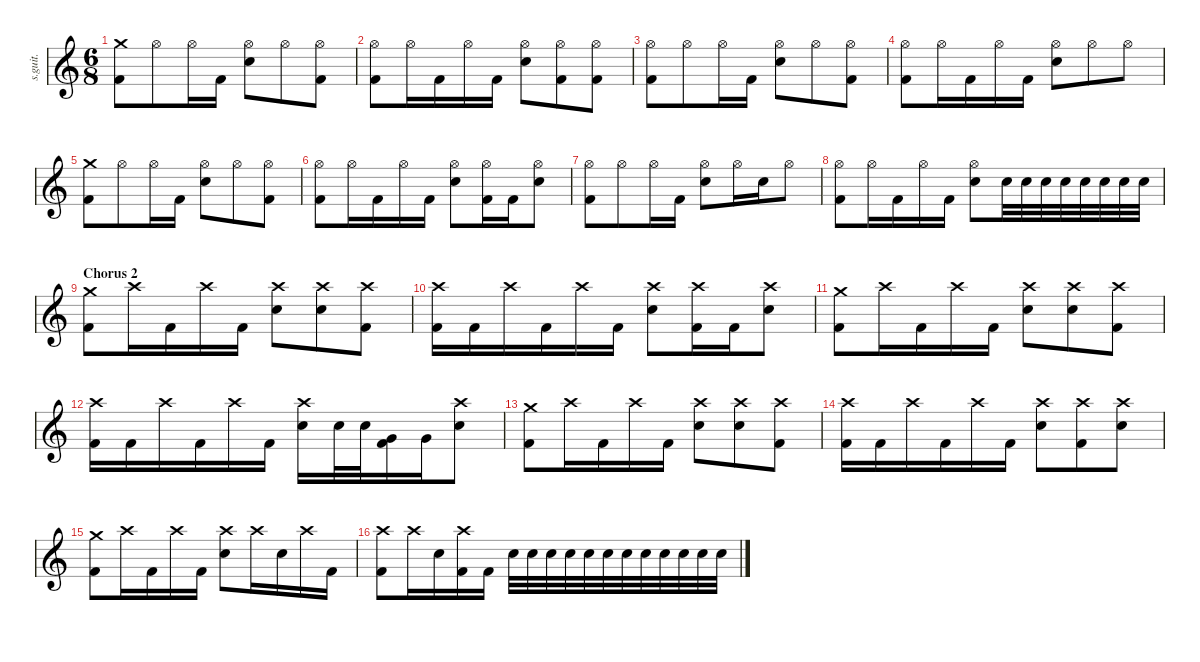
\defaultSystemsLayout 4
\hideDynamics
\bracketExtendMode nobrackets
\track ("Shannon (Drums)" "s.guit.") {instrument percussion}
\staff {score}
\articulation defaults
\ts (6 8)
\tempo (94 hide)
\clef g2
\ks c
("Crash medium (hit)" "Kick (hit) 2").8{lyrics (0 "") lyrics (1 "") lyrics (2 "") lyrics (3 "") lyrics (4 "") dy f} "Hi-Hat (open)".8{lyrics (0 "") lyrics (1 "") lyrics (2 "") lyrics (3 "") lyrics (4 "")} "Hi-Hat (open)".16{lyrics (0 "") lyrics (1 "") lyrics (2 "") lyrics (3 "") lyrics (4 "")} "Kick (hit) 2".16{lyrics (0 "") lyrics (1 "") lyrics (2 "") lyrics (3 "") lyrics (4 "")} ("Hi-Hat (open)" "Electric Snare (hit)").8{lyrics (0 "") lyrics (1 "") lyrics (2 "") lyrics (3 "") lyrics (4 "")} "Hi-Hat (open)".8{lyrics (0 "") lyrics (1 "") lyrics (2 "") lyrics (3 "") lyrics (4 "")} ("Hi-Hat (open)" "Kick (hit) 2").8{lyrics (0 "") lyrics (1 "") lyrics (2 "") lyrics (3 "") lyrics (4 "")} |
("Hi-Hat (open)" "Kick (hit) 2").8{lyrics (0 "") lyrics (1 "") lyrics (2 "") lyrics (3 "") lyrics (4 "")} "Hi-Hat (open)".16{lyrics (0 "") lyrics (1 "") lyrics (2 "") lyrics (3 "") lyrics (4 "")} "Kick (hit) 2".16{lyrics (0 "") lyrics (1 "") lyrics (2 "") lyrics (3 "") lyrics (4 "")} "Hi-Hat (open)".16{lyrics (0 "") lyrics (1 "") lyrics (2 "") lyrics (3 "") lyrics (4 "")} "Kick (hit) 2".16{lyrics (0 "") lyrics (1 "") lyrics (2 "") lyrics (3 "") lyrics (4 "")} ("Hi-Hat (open)" "Electric Snare (hit)").8{lyrics (0 "") lyrics (1 "") lyrics (2 "") lyrics (3 "") lyrics (4 "")} ("Hi-Hat (open)" "Kick (hit) 2").8{lyrics (0 "") lyrics (1 "") lyrics (2 "") lyrics (3 "") lyrics (4 "")} ("Hi-Hat (open)" "Kick (hit) 2").8{lyrics (0 "") lyrics (1 "") lyrics (2 "") lyrics (3 "") lyrics (4 "")} |
("Hi-Hat (open)" "Kick (hit) 2").8{lyrics (0 "") lyrics (1 "") lyrics (2 "") lyrics (3 "") lyrics (4 "")} "Hi-Hat (open)".8{lyrics (0 "") lyrics (1 "") lyrics (2 "") lyrics (3 "") lyrics (4 "")} "Hi-Hat (open)".16{lyrics (0 "") lyrics (1 "") lyrics (2 "") lyrics (3 "") lyrics (4 "")} "Kick (hit) 2".16{lyrics (0 "") lyrics (1 "") lyrics (2 "") lyrics (3 "") lyrics (4 "")} ("Hi-Hat (open)" "Electric Snare (hit)").8{lyrics (0 "") lyrics (1 "") lyrics (2 "") lyrics (3 "") lyrics (4 "")} "Hi-Hat (open)".8{lyrics (0 "") lyrics (1 "") lyrics (2 "") lyrics (3 "") lyrics (4 "")} ("Hi-Hat (open)" "Kick (hit) 2").8{lyrics (0 "") lyrics (1 "") lyrics (2 "") lyrics (3 "") lyrics (4 "")} |
("Hi-Hat (open)" "Kick (hit) 2").8{lyrics (0 "") lyrics (1 "") lyrics (2 "") lyrics (3 "") lyrics (4 "")} "Hi-Hat (open)".16{lyrics (0 "") lyrics (1 "") lyrics (2 "") lyrics (3 "") lyrics (4 "")} "Kick (hit) 2".16{lyrics (0 "") lyrics (1 "") lyrics (2 "") lyrics (3 "") lyrics (4 "")} "Hi-Hat (open)".16{lyrics (0 "") lyrics (1 "") lyrics (2 "") lyrics (3 "") lyrics (4 "")} "Kick (hit) 2".16{lyrics (0 "") lyrics (1 "") lyrics (2 "") lyrics (3 "") lyrics (4 "")} ("Hi-Hat (open)" "Electric Snare (hit)").8{lyrics (0 "") lyrics (1 "") lyrics (2 "") lyrics (3 "") lyrics (4 "")} "Hi-Hat (open)".8{lyrics (0 "") lyrics (1 "") lyrics (2 "") lyrics (3 "") lyrics (4 "")} "Hi-Hat (open)".8{lyrics (0 "") lyrics (1 "") lyrics (2 "") lyrics (3 "") lyrics (4 "")} |
("Crash medium (hit)" "Kick (hit) 2").8{lyrics (0 "") lyrics (1 "") lyrics (2 "") lyrics (3 "") lyrics (4 "")} "Hi-Hat (open)".8{lyrics (0 "") lyrics (1 "") lyrics (2 "") lyrics (3 "") lyrics (4 "")} "Hi-Hat (open)".16{lyrics (0 "") lyrics (1 "") lyrics (2 "") lyrics (3 "") lyrics (4 "")} "Kick (hit) 2".16{lyrics (0 "") lyrics (1 "") lyrics (2 "") lyrics (3 "") lyrics (4 "")} ("Hi-Hat (open)" "Electric Snare (hit)").8{lyrics (0 "") lyrics (1 "") lyrics (2 "") lyrics (3 "") lyrics (4 "")} "Hi-Hat (open)".8{lyrics (0 "") lyrics (1 "") lyrics (2 "") lyrics (3 "") lyrics (4 "")} ("Hi-Hat (open)" "Kick (hit) 2").8{lyrics (0 "") lyrics (1 "") lyrics (2 "") lyrics (3 "") lyrics (4 "")} |
("Hi-Hat (open)" "Kick (hit) 2").8{lyrics (0 "") lyrics (1 "") lyrics (2 "") lyrics (3 "") lyrics (4 "")} "Hi-Hat (open)".16{lyrics (0 "") lyrics (1 "") lyrics (2 "") lyrics (3 "") lyrics (4 "")} "Kick (hit) 2".16{lyrics (0 "") lyrics (1 "") lyrics (2 "") lyrics (3 "") lyrics (4 "")} "Hi-Hat (open)".16{lyrics (0 "") lyrics (1 "") lyrics (2 "") lyrics (3 "") lyrics (4 "")} "Kick (hit) 2".16{lyrics (0 "") lyrics (1 "") lyrics (2 "") lyrics (3 "") lyrics (4 "")} ("Hi-Hat (open)" "Electric Snare (hit)").8{lyrics (0 "") lyrics (1 "") lyrics (2 "") lyrics (3 "") lyrics (4 "")} ("Hi-Hat (open)" "Kick (hit) 2").16{lyrics (0 "") lyrics (1 "") lyrics (2 "") lyrics (3 "") lyrics (4 "")} "Kick (hit) 2".16{lyrics (0 "") lyrics (1 "") lyrics (2 "") lyrics (3 "") lyrics (4 "")} ("Hi-Hat (open)" "Electric Snare (hit)").8{lyrics (0 "") lyrics (1 "") lyrics (2 "") lyrics (3 "") lyrics (4 "")} |
("Hi-Hat (open)" "Kick (hit) 2").8{lyrics (0 "") lyrics (1 "") lyrics (2 "") lyrics (3 "") lyrics (4 "")} "Hi-Hat (open)".8{lyrics (0 "") lyrics (1 "") lyrics (2 "") lyrics (3 "") lyrics (4 "")} "Hi-Hat (open)".16{lyrics (0 "") lyrics (1 "") lyrics (2 "") lyrics (3 "") lyrics (4 "")} "Kick (hit) 2".16{lyrics (0 "") lyrics (1 "") lyrics (2 "") lyrics (3 "") lyrics (4 "")} ("Hi-Hat (open)" "Electric Snare (hit)").8{lyrics (0 "") lyrics (1 "") lyrics (2 "") lyrics (3 "") lyrics (4 "")} "Hi-Hat (open)".16{lyrics (0 "") lyrics (1 "") lyrics (2 "") lyrics (3 "") lyrics (4 "")} "Electric Snare (hit)".16{lyrics (0 "") lyrics (1 "") lyrics (2 "") lyrics (3 "") lyrics (4 "")} "Hi-Hat (open)".8{lyrics (0 "") lyrics (1 "") lyrics (2 "") lyrics (3 "") lyrics (4 "")} |
("Hi-Hat (open)" "Kick (hit) 2").8{lyrics (0 "") lyrics (1 "") lyrics (2 "") lyrics (3 "") lyrics (4 "")} "Hi-Hat (open)".16{lyrics (0 "") lyrics (1 "") lyrics (2 "") lyrics (3 "") lyrics (4 "")} "Kick (hit) 2".16{lyrics (0 "") lyrics (1 "") lyrics (2 "") lyrics (3 "") lyrics (4 "")} "Hi-Hat (open)".16{lyrics (0 "") lyrics (1 "") lyrics (2 "") lyrics (3 "") lyrics (4 "")} "Kick (hit) 2".16{lyrics (0 "") lyrics (1 "") lyrics (2 "") lyrics (3 "") lyrics (4 "")} ("Hi-Hat (open)" "Electric Snare (hit)").8{lyrics (0 "") lyrics (1 "") lyrics (2 "") lyrics (3 "") lyrics (4 "")} "Electric Snare (hit)".32{lyrics (0 "") lyrics (1 "") lyrics (2 "") lyrics (3 "") lyrics (4 "")} "Electric Snare (hit)".32{lyrics (0 "") lyrics (1 "") lyrics (2 "") lyrics (3 "") lyrics (4 "")} "Electric Snare (hit)".32{lyrics (0 "") lyrics (1 "") lyrics (2 "") lyrics (3 "") lyrics (4 "")} "Electric Snare (hit)".32{lyrics (0 "") lyrics (1 "") lyrics (2 "") lyrics (3 "") lyrics (4 "")} "Electric Snare (hit)".32{lyrics (0 "") lyrics (1 "") lyrics (2 "") lyrics (3 "") lyrics (4 "")} "Electric Snare (hit)".32{lyrics (0 "") lyrics (1 "") lyrics (2 "") lyrics (3 "") lyrics (4 "")} "Electric Snare (hit)".32{lyrics (0 "") lyrics (1 "") lyrics (2 "") lyrics (3 "") lyrics (4 "")} "Electric Snare (hit)".32{lyrics (0 "") lyrics (1 "") lyrics (2 "") lyrics (3 "") lyrics (4 "")} |
\section ("" "Chorus 2")
("Crash medium (hit)" "Kick (hit) 2").8{lyrics (0 "") lyrics (1 "") lyrics (2 "") lyrics (3 "") lyrics (4 "")} "Crash high (hit)".16{lyrics (0 "") lyrics (1 "") lyrics (2 "") lyrics (3 "") lyrics (4 "")} "Kick (hit) 2".16{lyrics (0 "") lyrics (1 "") lyrics (2 "") lyrics (3 "") lyrics (4 "")} "Crash high (hit)".16{lyrics (0 "") lyrics (1 "") lyrics (2 "") lyrics (3 "") lyrics (4 "")} "Kick (hit) 2".16{lyrics (0 "") lyrics (1 "") lyrics (2 "") lyrics (3 "") lyrics (4 "")} ("Crash high (hit)" "Electric Snare (hit)").8{lyrics (0 "") lyrics (1 "") lyrics (2 "") lyrics (3 "") lyrics (4 "")} ("Crash high (hit)" "Electric Snare (hit)").8{lyrics (0 "") lyrics (1 "") lyrics (2 "") lyrics (3 "") lyrics (4 "")} ("Crash high (hit)" "Kick (hit) 2").8{lyrics (0 "") lyrics (1 "") lyrics (2 "") lyrics (3 "") lyrics (4 "")} |
("Crash high (hit)" "Kick (hit) 2").16{lyrics (0 "") lyrics (1 "") lyrics (2 "") lyrics (3 "") lyrics (4 "")} "Kick (hit) 2".16{lyrics (0 "") lyrics (1 "") lyrics (2 "") lyrics (3 "") lyrics (4 "")} "Crash high (hit)".16{lyrics (0 "") lyrics (1 "") lyrics (2 "") lyrics (3 "") lyrics (4 "")} "Kick (hit) 2".16{lyrics (0 "") lyrics (1 "") lyrics (2 "") lyrics (3 "") lyrics (4 "")} "Crash high (hit)".16{lyrics (0 "") lyrics (1 "") lyrics (2 "") lyrics (3 "") lyrics (4 "")} "Kick (hit) 2".16{lyrics (0 "") lyrics (1 "") lyrics (2 "") lyrics (3 "") lyrics (4 "")} ("Crash high (hit)" "Electric Snare (hit)").8{lyrics (0 "") lyrics (1 "") lyrics (2 "") lyrics (3 "") lyrics (4 "")} ("Crash high (hit)" "Kick (hit) 2").16{lyrics (0 "") lyrics (1 "") lyrics (2 "") lyrics (3 "") lyrics (4 "")} "Kick (hit) 2".16{lyrics (0 "") lyrics (1 "") lyrics (2 "") lyrics (3 "") lyrics (4 "")} ("Crash high (hit)" "Electric Snare (hit)").8{lyrics (0 "") lyrics (1 "") lyrics (2 "") lyrics (3 "") lyrics (4 "")} |
("Crash medium (hit)" "Kick (hit) 2").8{lyrics (0 "") lyrics (1 "") lyrics (2 "") lyrics (3 "") lyrics (4 "")} "Crash high (hit)".16{lyrics (0 "") lyrics (1 "") lyrics (2 "") lyrics (3 "") lyrics (4 "")} "Kick (hit) 2".16{lyrics (0 "") lyrics (1 "") lyrics (2 "") lyrics (3 "") lyrics (4 "")} "Crash high (hit)".16{lyrics (0 "") lyrics (1 "") lyrics (2 "") lyrics (3 "") lyrics (4 "")} "Kick (hit) 2".16{lyrics (0 "") lyrics (1 "") lyrics (2 "") lyrics (3 "") lyrics (4 "")} ("Crash high (hit)" "Electric Snare (hit)").8{lyrics (0 "") lyrics (1 "") lyrics (2 "") lyrics (3 "") lyrics (4 "")} ("Crash high (hit)" "Electric Snare (hit)").8{lyrics (0 "") lyrics (1 "") lyrics (2 "") lyrics (3 "") lyrics (4 "")} ("Crash high (hit)" "Kick (hit) 2").8{lyrics (0 "") lyrics (1 "") lyrics (2 "") lyrics (3 "") lyrics (4 "")} |
("Crash high (hit)" "Kick (hit) 2").16{lyrics (0 "") lyrics (1 "") lyrics (2 "") lyrics (3 "") lyrics (4 "")} "Kick (hit) 2".16{lyrics (0 "") lyrics (1 "") lyrics (2 "") lyrics (3 "") lyrics (4 "")} "Crash high (hit)".16{lyrics (0 "") lyrics (1 "") lyrics (2 "") lyrics (3 "") lyrics (4 "")} "Kick (hit) 2".16{lyrics (0 "") lyrics (1 "") lyrics (2 "") lyrics (3 "") lyrics (4 "")} "Crash high (hit)".16{lyrics (0 "") lyrics (1 "") lyrics (2 "") lyrics (3 "") lyrics (4 "")} "Kick (hit) 2".16{lyrics (0 "") lyrics (1 "") lyrics (2 "") lyrics (3 "") lyrics (4 "")} ("Crash high (hit)" "Electric Snare (hit)").16{lyrics (0 "") lyrics (1 "") lyrics (2 "") lyrics (3 "") lyrics (4 "")} "Electric Snare (hit)".32{lyrics (0 "") lyrics (1 "") lyrics (2 "") lyrics (3 "") lyrics (4 "")} "Electric Snare (hit)".32{lyrics (0 "") lyrics (1 "") lyrics (2 "") lyrics (3 "") lyrics (4 "")} ("Very Low Tom (hit)" "Kick (hit) 2").16{lyrics (0 "") lyrics (1 "") lyrics (2 "") lyrics (3 "") lyrics (4 "")} "Very Low Tom (hit)".16{lyrics (0 "") lyrics (1 "") lyrics (2 "") lyrics (3 "") lyrics (4 "")} ("Crash high (hit)" "Electric Snare (hit)").8{lyrics (0 "") lyrics (1 "") lyrics (2 "") lyrics (3 "") lyrics (4 "")} |
("Crash medium (hit)" "Kick (hit) 2").8{lyrics (0 "") lyrics (1 "") lyrics (2 "") lyrics (3 "") lyrics (4 "")} "Crash high (hit)".16{lyrics (0 "") lyrics (1 "") lyrics (2 "") lyrics (3 "") lyrics (4 "")} "Kick (hit) 2".16{lyrics (0 "") lyrics (1 "") lyrics (2 "") lyrics (3 "") lyrics (4 "")} "Crash high (hit)".16{lyrics (0 "") lyrics (1 "") lyrics (2 "") lyrics (3 "") lyrics (4 "")} "Kick (hit) 2".16{lyrics (0 "") lyrics (1 "") lyrics (2 "") lyrics (3 "") lyrics (4 "")} ("Crash high (hit)" "Electric Snare (hit)").8{lyrics (0 "") lyrics (1 "") lyrics (2 "") lyrics (3 "") lyrics (4 "")} ("Crash high (hit)" "Electric Snare (hit)").8{lyrics (0 "") lyrics (1 "") lyrics (2 "") lyrics (3 "") lyrics (4 "")} ("Crash high (hit)" "Kick (hit) 2").8{lyrics (0 "") lyrics (1 "") lyrics (2 "") lyrics (3 "") lyrics (4 "")} |
("Crash high (hit)" "Kick (hit) 2").16{lyrics (0 "") lyrics (1 "") lyrics (2 "") lyrics (3 "") lyrics (4 "")} "Kick (hit) 2".16{lyrics (0 "") lyrics (1 "") lyrics (2 "") lyrics (3 "") lyrics (4 "")} "Crash high (hit)".16{lyrics (0 "") lyrics (1 "") lyrics (2 "") lyrics (3 "") lyrics (4 "")} "Kick (hit) 2".16{lyrics (0 "") lyrics (1 "") lyrics (2 "") lyrics (3 "") lyrics (4 "")} "Crash high (hit)".16{lyrics (0 "") lyrics (1 "") lyrics (2 "") lyrics (3 "") lyrics (4 "")} "Kick (hit) 2".16{lyrics (0 "") lyrics (1 "") lyrics (2 "") lyrics (3 "") lyrics (4 "")} ("Crash high (hit)" "Electric Snare (hit)").8{lyrics (0 "") lyrics (1 "") lyrics (2 "") lyrics (3 "") lyrics (4 "")} ("Crash high (hit)" "Kick (hit) 2").8{lyrics (0 "") lyrics (1 "") lyrics (2 "") lyrics (3 "") lyrics (4 "")} ("Crash high (hit)" "Electric Snare (hit)").8{lyrics (0 "") lyrics (1 "") lyrics (2 "") lyrics (3 "") lyrics (4 "")} |
("Crash medium (hit)" "Kick (hit) 2").8{lyrics (0 "") lyrics (1 "") lyrics (2 "") lyrics (3 "") lyrics (4 "")} "Crash high (hit)".16{lyrics (0 "") lyrics (1 "") lyrics (2 "") lyrics (3 "") lyrics (4 "")} "Kick (hit) 2".16{lyrics (0 "") lyrics (1 "") lyrics (2 "") lyrics (3 "") lyrics (4 "")} "Crash high (hit)".16{lyrics (0 "") lyrics (1 "") lyrics (2 "") lyrics (3 "") lyrics (4 "")} "Kick (hit) 2".16{lyrics (0 "") lyrics (1 "") lyrics (2 "") lyrics (3 "") lyrics (4 "")} ("Crash high (hit)" "Electric Snare (hit)").8{lyrics (0 "") lyrics (1 "") lyrics (2 "") lyrics (3 "") lyrics (4 "")} "Crash high (hit)".16{lyrics (0 "") lyrics (1 "") lyrics (2 "") lyrics (3 "") lyrics (4 "")} "Electric Snare (hit)".16{lyrics (0 "") lyrics (1 "") lyrics (2 "") lyrics (3 "") lyrics (4 "")} "Crash high (hit)".16{lyrics (0 "") lyrics (1 "") lyrics (2 "") lyrics (3 "") lyrics (4 "")} "Kick (hit) 2".16{lyrics (0 "") lyrics (1 "") lyrics (2 "") lyrics (3 "") lyrics (4 "")} |
("Crash high (hit)" "Kick (hit) 2").8{lyrics (0 "") lyrics (1 "") lyrics (2 "") lyrics (3 "") lyrics (4 "")} "Crash high (hit)".16{lyrics (0 "") lyrics (1 "") lyrics (2 "") lyrics (3 "") lyrics (4 "")} "Electric Snare (hit)".16{lyrics (0 "") lyrics (1 "") lyrics (2 "") lyrics (3 "") lyrics (4 "")} ("Crash high (hit)" "Kick (hit) 2").16{lyrics (0 "") lyrics (1 "") lyrics (2 "") lyrics (3 "") lyrics (4 "")} "Kick (hit) 2".16{lyrics (0 "") lyrics (1 "") lyrics (2 "") lyrics (3 "") lyrics (4 "")} "Electric Snare (hit)".32{lyrics (0 "") lyrics (1 "") lyrics (2 "") lyrics (3 "") lyrics (4 "")} "Electric Snare (hit)".32{lyrics (0 "") lyrics (1 "") lyrics (2 "") lyrics (3 "") lyrics (4 "")} "Electric Snare (hit)".32{lyrics (0 "") lyrics (1 "") lyrics (2 "") lyrics (3 "") lyrics (4 "")} "Electric Snare (hit)".32{lyrics (0 "") lyrics (1 "") lyrics (2 "") lyrics (3 "") lyrics (4 "")} "Electric Snare (hit)".32{lyrics (0 "") lyrics (1 "") lyrics (2 "") lyrics (3 "") lyrics (4 "")} "Electric Snare (hit)".32{lyrics (0 "") lyrics (1 "") lyrics (2 "") lyrics (3 "") lyrics (4 "")} "Electric Snare (hit)".32{lyrics (0 "") lyrics (1 "") lyrics (2 "") lyrics (3 "") lyrics (4 "")} "Electric Snare (hit)".32{lyrics (0 "") lyrics (1 "") lyrics (2 "") lyrics (3 "") lyrics (4 "")} "Electric Snare (hit)".32{lyrics (0 "") lyrics (1 "") lyrics (2 "") lyrics (3 "") lyrics (4 "")} "Electric Snare (hit)".32{lyrics (0 "") lyrics (1 "") lyrics (2 "") lyrics (3 "") lyrics (4 "")} "Electric Snare (hit)".32{lyrics (0 "") lyrics (1 "") lyrics (2 "") lyrics (3 "") lyrics (4 "")} "Electric Snare (hit)".32{lyrics (0 "") lyrics (1 "") lyrics (2 "") lyrics (3 "") lyrics (4 "")}
